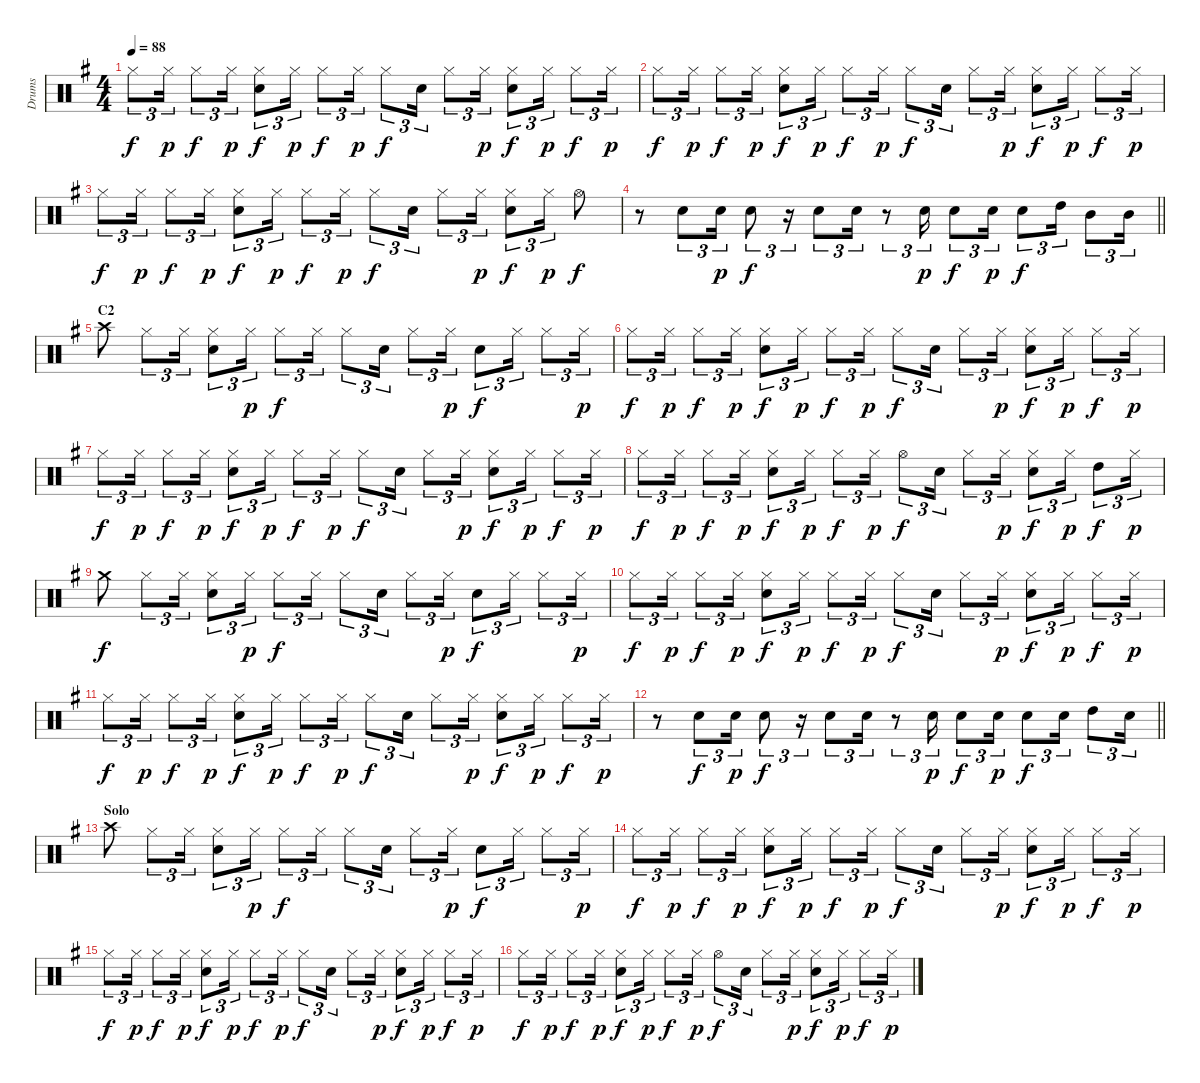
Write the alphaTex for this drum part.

\track ("Drums" "Drums") {instrument percussion}
\staff {score}
\articulation defaults
\ts (4 4)
\tempo 88
\clef neutral
\ks g "Hi-Hat (closed)".8{tu (3 2) dy f} "Hi-Hat (closed)".16{tu (3 2) dy p} "Hi-Hat (closed)".8{tu (3 2) dy f} "Hi-Hat (closed)".16{tu (3 2) dy p}
("Hi-Hat (closed)" "Snare (hit) 2").8{tu (3 2) dy f} "Hi-Hat (closed)".16{tu (3 2) dy p} "Hi-Hat (closed)".8{tu (3 2) dy f} "Hi-Hat (closed)".16{tu (3 2) dy p} "Hi-Hat (closed)".8{tu (3 2) dy f} "Snare (hit) 2".16{tu (3 2)} "Hi-Hat (closed)".8{tu (3 2)} "Hi-Hat (closed)".16{tu (3 2) dy p} ("Hi-Hat (closed)" "Snare (hit) 2").8{tu (3 2) dy f} "Hi-Hat (closed)".16{tu (3 2) dy p} "Hi-Hat (closed)".8{tu (3 2) dy f} "Hi-Hat (closed)".16{tu (3 2) dy p} |
"Hi-Hat (closed)".8{tu (3 2) dy f} "Hi-Hat (closed)".16{tu (3 2) dy p} "Hi-Hat (closed)".8{tu (3 2) dy f} "Hi-Hat (closed)".16{tu (3 2) dy p} ("Hi-Hat (closed)" "Snare (hit) 2").8{tu (3 2) dy f} "Hi-Hat (closed)".16{tu (3 2) dy p} "Hi-Hat (closed)".8{tu (3 2) dy f} "Hi-Hat (closed)".16{tu (3 2) dy p} "Hi-Hat (closed)".8{tu (3 2) dy f} "Snare (hit) 2".16{tu (3 2)} "Hi-Hat (closed)".8{tu (3 2)} "Hi-Hat (closed)".16{tu (3 2) dy p} ("Hi-Hat (closed)" "Snare (hit) 2").8{tu (3 2) dy f} "Hi-Hat (closed)".16{tu (3 2) dy p} "Hi-Hat (closed)".8{tu (3 2) dy f} "Hi-Hat (closed)".16{tu (3 2) dy p} |
"Hi-Hat (closed)".8{tu (3 2) dy f} "Hi-Hat (closed)".16{tu (3 2) dy p} "Hi-Hat (closed)".8{tu (3 2) dy f} "Hi-Hat (closed)".16{tu (3 2) dy p} ("Hi-Hat (closed)" "Snare (hit) 2").8{tu (3 2) dy f} "Hi-Hat (closed)".16{tu (3 2) dy p} "Hi-Hat (closed)".8{tu (3 2) dy f} "Hi-Hat (closed)".16{tu (3 2) dy p} "Hi-Hat (closed)".8{tu (3 2) dy f} "Snare (hit) 2".16{tu (3 2)} "Hi-Hat (closed)".8{tu (3 2)} "Hi-Hat (closed)".16{tu (3 2) dy p} ("Hi-Hat (closed)" "Snare (hit) 2").8{tu (3 2) dy f} "Hi-Hat (closed)".16{tu (3 2) dy p} "Hi-Hat (open)".8{dy f} |
\barLineRight lightlight
r.8 "Snare (hit) 2".8{tu (3 2)} "Snare (hit) 2".16{tu (3 2) dy p} "Snare (hit) 2".8{tu (3 2) dy f} r.16{tu (3 2)} "Snare (hit) 2".8{tu (3 2)} "Snare (hit) 2".16{tu (3 2)} r.8{tu (3 2)} "Snare (hit) 2".16{tu (3 2) dy p} "Snare (hit) 2".8{tu (3 2) dy f} "Snare (hit) 2".16{tu (3 2) dy p} "Snare (hit) 2".8{tu (3 2) dy f} "High Tom (hit)".16{tu (3 2)} "Mid Tom (hit)".8{tu (3 2)} "Mid Tom (hit)".16{tu (3 2)} |
\section ("" "C2")
"Crash high (hit)".8 "Hi-Hat (closed)".8{tu (3 2)} "Hi-Hat (closed)".16{tu (3 2)} ("Hi-Hat (closed)" "Snare (hit) 2").8{tu (3 2)} "Hi-Hat (closed)".16{tu (3 2) dy p} "Hi-Hat (closed)".8{tu (3 2) dy f} "Hi-Hat (closed)".16{tu (3 2)} "Hi-Hat (closed)".8{tu (3 2)} "Snare (hit) 2".16{tu (3 2)} "Hi-Hat (closed)".8{tu (3 2)} "Hi-Hat (closed)".16{tu (3 2) dy p} "Snare (hit) 2".8{tu (3 2) dy f} "Hi-Hat (closed)".16{tu (3 2)} "Hi-Hat (closed)".8{tu (3 2)} "Hi-Hat (closed)".16{tu (3 2) dy p} |
"Hi-Hat (closed)".8{tu (3 2) dy f} "Hi-Hat (closed)".16{tu (3 2) dy p} "Hi-Hat (closed)".8{tu (3 2) dy f} "Hi-Hat (closed)".16{tu (3 2) dy p} ("Hi-Hat (closed)" "Snare (hit) 2").8{tu (3 2) dy f} "Hi-Hat (closed)".16{tu (3 2) dy p} "Hi-Hat (closed)".8{tu (3 2) dy f} "Hi-Hat (closed)".16{tu (3 2) dy p} "Hi-Hat (closed)".8{tu (3 2) dy f} "Snare (hit) 2".16{tu (3 2)} "Hi-Hat (closed)".8{tu (3 2)} "Hi-Hat (closed)".16{tu (3 2) dy p} ("Hi-Hat (closed)" "Snare (hit) 2").8{tu (3 2) dy f} "Hi-Hat (closed)".16{tu (3 2) dy p} "Hi-Hat (closed)".8{tu (3 2) dy f} "Hi-Hat (closed)".16{tu (3 2) dy p} |
"Hi-Hat (closed)".8{tu (3 2) dy f} "Hi-Hat (closed)".16{tu (3 2) dy p} "Hi-Hat (closed)".8{tu (3 2) dy f} "Hi-Hat (closed)".16{tu (3 2) dy p} ("Hi-Hat (closed)" "Snare (hit) 2").8{tu (3 2) dy f} "Hi-Hat (closed)".16{tu (3 2) dy p} "Hi-Hat (closed)".8{tu (3 2) dy f} "Hi-Hat (closed)".16{tu (3 2) dy p} "Hi-Hat (closed)".8{tu (3 2) dy f} "Snare (hit) 2".16{tu (3 2)} "Hi-Hat (closed)".8{tu (3 2)} "Hi-Hat (closed)".16{tu (3 2) dy p} ("Hi-Hat (closed)" "Snare (hit) 2").8{tu (3 2) dy f} "Hi-Hat (closed)".16{tu (3 2) dy p} "Hi-Hat (closed)".8{tu (3 2) dy f} "Hi-Hat (closed)".16{tu (3 2) dy p} |
"Hi-Hat (closed)".8{tu (3 2) dy f} "Hi-Hat (closed)".16{tu (3 2) dy p} "Hi-Hat (closed)".8{tu (3 2) dy f} "Hi-Hat (closed)".16{tu (3 2) dy p} ("Hi-Hat (closed)" "Snare (hit) 2").8{tu (3 2) dy f} "Hi-Hat (closed)".16{tu (3 2) dy p} "Hi-Hat (closed)".8{tu (3 2) dy f} "Hi-Hat (closed)".16{tu (3 2) dy p} "Hi-Hat (open)".8{tu (3 2) dy f} "Snare (hit) 2".16{tu (3 2)} "Hi-Hat (closed)".8{tu (3 2)} "Hi-Hat (closed)".16{tu (3 2) dy p} ("Hi-Hat (closed)" "Snare (hit) 2").8{tu (3 2) dy f} "Hi-Hat (closed)".16{tu (3 2) dy p} "High Tom (hit)".8{tu (3 2) dy f} "Hi-Hat (closed)".16{tu (3 2) dy p} |
"Crash medium (hit)".8{dy f} "Hi-Hat (closed)".8{tu (3 2)} "Hi-Hat (closed)".16{tu (3 2)} ("Hi-Hat (closed)" "Snare (hit) 2").8{tu (3 2)} "Hi-Hat (closed)".16{tu (3 2) dy p} "Hi-Hat (closed)".8{tu (3 2) dy f} "Hi-Hat (closed)".16{tu (3 2)} "Hi-Hat (closed)".8{tu (3 2)} "Snare (hit) 2".16{tu (3 2)} "Hi-Hat (closed)".8{tu (3 2)} "Hi-Hat (closed)".16{tu (3 2) dy p} "Snare (hit) 2".8{tu (3 2) dy f} "Hi-Hat (closed)".16{tu (3 2)} "Hi-Hat (closed)".8{tu (3 2)} "Hi-Hat (closed)".16{tu (3 2) dy p} |
"Hi-Hat (closed)".8{tu (3 2) dy f} "Hi-Hat (closed)".16{tu (3 2) dy p} "Hi-Hat (closed)".8{tu (3 2) dy f} "Hi-Hat (closed)".16{tu (3 2) dy p} ("Hi-Hat (closed)" "Snare (hit) 2").8{tu (3 2) dy f} "Hi-Hat (closed)".16{tu (3 2) dy p} "Hi-Hat (closed)".8{tu (3 2) dy f} "Hi-Hat (closed)".16{tu (3 2) dy p} "Hi-Hat (closed)".8{tu (3 2) dy f} "Snare (hit) 2".16{tu (3 2)} "Hi-Hat (closed)".8{tu (3 2)} "Hi-Hat (closed)".16{tu (3 2) dy p} ("Hi-Hat (closed)" "Snare (hit) 2").8{tu (3 2) dy f} "Hi-Hat (closed)".16{tu (3 2) dy p} "Hi-Hat (closed)".8{tu (3 2) dy f} "Hi-Hat (closed)".16{tu (3 2) dy p} |
"Hi-Hat (closed)".8{tu (3 2) dy f} "Hi-Hat (closed)".16{tu (3 2) dy p} "Hi-Hat (closed)".8{tu (3 2) dy f} "Hi-Hat (closed)".16{tu (3 2) dy p} ("Hi-Hat (closed)" "Snare (hit) 2").8{tu (3 2) dy f} "Hi-Hat (closed)".16{tu (3 2) dy p} "Hi-Hat (closed)".8{tu (3 2) dy f} "Hi-Hat (closed)".16{tu (3 2) dy p} "Hi-Hat (closed)".8{tu (3 2) dy f} "Snare (hit) 2".16{tu (3 2)} "Hi-Hat (closed)".8{tu (3 2)} "Hi-Hat (closed)".16{tu (3 2) dy p} ("Hi-Hat (closed)" "Snare (hit) 2").8{tu (3 2) dy f} "Hi-Hat (closed)".16{tu (3 2) dy p} "Hi-Hat (closed)".8{tu (3 2) dy f} "Hi-Hat (closed)".16{tu (3 2) dy p} |
\barLineRight lightlight
r.8 "Snare (hit) 2".8{tu (3 2) dy f} "Snare (hit) 2".16{tu (3 2) dy p} "Snare (hit) 2".8{tu (3 2) dy f} r.16{tu (3 2)} "Snare (hit) 2".8{tu (3 2)} "Snare (hit) 2".16{tu (3 2)} r.8{tu (3 2)} "Snare (hit) 2".16{tu (3 2) dy p} "Snare (hit) 2".8{tu (3 2) dy f} "Snare (hit) 2".16{tu (3 2) dy p} "Snare (hit) 2".8{tu (3 2) dy f} "Snare (hit) 2".16{tu (3 2)} "High Tom (hit)".8{tu (3 2)} "Snare (hit) 2".16{tu (3 2)} |
\section ("" "Solo")
"Crash high (hit)".8 "Hi-Hat (closed)".8{tu (3 2)} "Hi-Hat (closed)".16{tu (3 2)} ("Hi-Hat (closed)" "Snare (hit) 2").8{tu (3 2)} "Hi-Hat (closed)".16{tu (3 2) dy p} "Hi-Hat (closed)".8{tu (3 2) dy f} "Hi-Hat (closed)".16{tu (3 2)} "Hi-Hat (closed)".8{tu (3 2)} "Snare (hit) 2".16{tu (3 2)} "Hi-Hat (closed)".8{tu (3 2)} "Hi-Hat (closed)".16{tu (3 2) dy p} "Snare (hit) 2".8{tu (3 2) dy f} "Hi-Hat (closed)".16{tu (3 2)} "Hi-Hat (closed)".8{tu (3 2)} "Hi-Hat (closed)".16{tu (3 2) dy p} |
"Hi-Hat (closed)".8{tu (3 2) dy f} "Hi-Hat (closed)".16{tu (3 2) dy p} "Hi-Hat (closed)".8{tu (3 2) dy f} "Hi-Hat (closed)".16{tu (3 2) dy p} ("Hi-Hat (closed)" "Snare (hit) 2").8{tu (3 2) dy f} "Hi-Hat (closed)".16{tu (3 2) dy p} "Hi-Hat (closed)".8{tu (3 2) dy f} "Hi-Hat (closed)".16{tu (3 2) dy p} "Hi-Hat (closed)".8{tu (3 2) dy f} "Snare (hit) 2".16{tu (3 2)} "Hi-Hat (closed)".8{tu (3 2)} "Hi-Hat (closed)".16{tu (3 2) dy p} ("Hi-Hat (closed)" "Snare (hit) 2").8{tu (3 2) dy f} "Hi-Hat (closed)".16{tu (3 2) dy p} "Hi-Hat (closed)".8{tu (3 2) dy f} "Hi-Hat (closed)".16{tu (3 2) dy p} |
"Hi-Hat (closed)".8{tu (3 2) dy f} "Hi-Hat (closed)".16{tu (3 2) dy p} "Hi-Hat (closed)".8{tu (3 2) dy f} "Hi-Hat (closed)".16{tu (3 2) dy p} ("Hi-Hat (closed)" "Snare (hit) 2").8{tu (3 2) dy f} "Hi-Hat (closed)".16{tu (3 2) dy p} "Hi-Hat (closed)".8{tu (3 2) dy f} "Hi-Hat (closed)".16{tu (3 2) dy p} "Hi-Hat (closed)".8{tu (3 2) dy f} "Snare (hit) 2".16{tu (3 2)} "Hi-Hat (closed)".8{tu (3 2)} "Hi-Hat (closed)".16{tu (3 2) dy p} ("Hi-Hat (closed)" "Snare (hit) 2").8{tu (3 2) dy f} "Hi-Hat (closed)".16{tu (3 2) dy p} "Hi-Hat (closed)".8{tu (3 2) dy f} "Hi-Hat (closed)".16{tu (3 2) dy p} |
"Hi-Hat (closed)".8{tu (3 2) dy f} "Hi-Hat (closed)".16{tu (3 2) dy p} "Hi-Hat (closed)".8{tu (3 2) dy f} "Hi-Hat (closed)".16{tu (3 2) dy p} ("Hi-Hat (closed)" "Snare (hit) 2").8{tu (3 2) dy f} "Hi-Hat (closed)".16{tu (3 2) dy p} "Hi-Hat (closed)".8{tu (3 2) dy f} "Hi-Hat (closed)".16{tu (3 2) dy p} "Hi-Hat (open)".8{tu (3 2) dy f} "Snare (hit) 2".16{tu (3 2)} "Hi-Hat (closed)".8{tu (3 2)} "Hi-Hat (closed)".16{tu (3 2) dy p} ("Hi-Hat (closed)" "Snare (hit) 2").8{tu (3 2) dy f} "Hi-Hat (closed)".16{tu (3 2) dy p} "Hi-Hat (closed)".8{tu (3 2) dy f} "Hi-Hat (closed)".16{tu (3 2) dy p}
